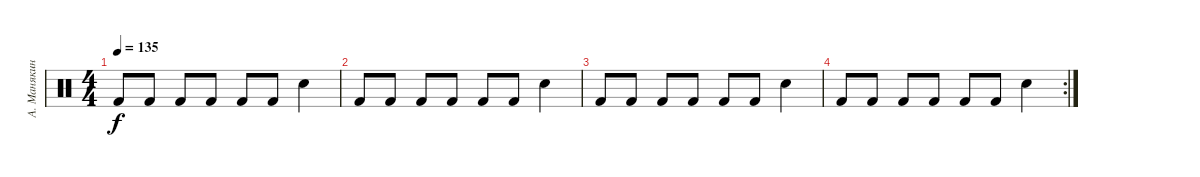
\track ("А. Манякин" "А. Манякин") {instrument percussion}
\staff {score}
\articulation defaults
\ts (4 4)
\tempo 135
\clef neutral
\ks c "Kick (hit) 2".8{dy f} "Kick (hit) 2".8 "Kick (hit) 2".8 "Kick (hit) 2".8 "Kick (hit) 2".8 "Kick (hit) 2".8 "Snare (hit) 2".4
|
"Kick (hit) 2".8 "Kick (hit) 2".8 "Kick (hit) 2".8 "Kick (hit) 2".8 "Kick (hit) 2".8 "Kick (hit) 2".8 "Snare (hit) 2".4 |
"Kick (hit) 2".8 "Kick (hit) 2".8 "Kick (hit) 2".8 "Kick (hit) 2".8 "Kick (hit) 2".8 "Kick (hit) 2".8 "Snare (hit) 2".4 |
\rc 2 "Kick (hit) 2".8 "Kick (hit) 2".8 "Kick (hit) 2".8 "Kick (hit) 2".8 "Kick (hit) 2".8 "Kick (hit) 2".8 "Snare (hit) 2".4
